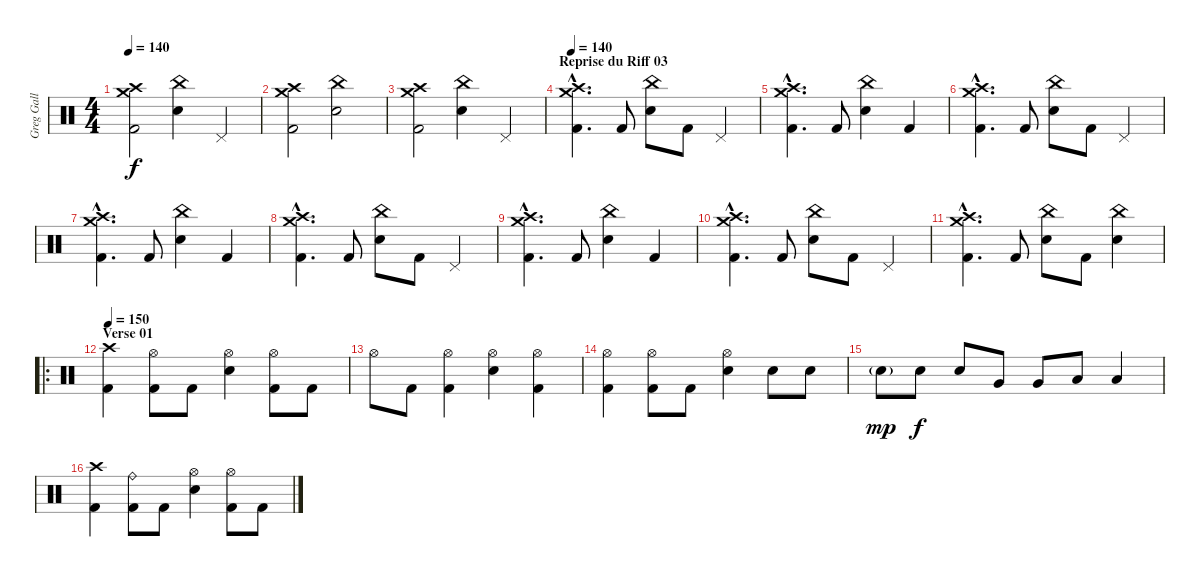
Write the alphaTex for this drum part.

\track ("Greg Gall" "Greg Gall") {instrument percussion}
\staff {score}
\articulation defaults
\ts (4 4)
\tempo 140
\clef neutral
\ks c
("Crash high (hit)" "Crash medium (hit)" "Kick (hit) 2").2{dy f} ("China (hit)" "Electric Snare (hit)").4 "Pedal Hi-Hat (hit)".4 |
("Crash high (hit)" "Crash medium (hit)" "Kick (hit) 2").2 ("China (hit)" "Electric Snare (hit)").2 |
("Crash high (hit)" "Crash medium (hit)" "Kick (hit) 2").2 ("China (hit)" "Electric Snare (hit)").4 "Pedal Hi-Hat (hit)".4 |
\section ("" "Reprise du Riff 03")
\tempo 140
("Crash high (hit)"{hac} "Crash medium (hit)"{hac} "Kick (hit) 2"{hac}).4{d} "Kick (hit) 2".8 ("China (hit)" "Electric Snare (hit)").8 "Kick (hit) 2".8 "Pedal Hi-Hat (hit)".4 |
("Crash high (hit)"{hac} "Crash medium (hit)"{hac} "Kick (hit) 2"{hac}).4{d} "Kick (hit) 2".8 ("China (hit)" "Electric Snare (hit)").4 "Kick (hit) 2".4 |
("Crash high (hit)"{hac} "Crash medium (hit)"{hac} "Kick (hit) 2"{hac}).4{d} "Kick (hit) 2".8 ("China (hit)" "Electric Snare (hit)").8 "Kick (hit) 2".8 "Pedal Hi-Hat (hit)".4 |
("Crash high (hit)"{hac} "Crash medium (hit)"{hac} "Kick (hit) 2"{hac}).4{d} "Kick (hit) 2".8 ("China (hit)" "Electric Snare (hit)").4 "Kick (hit) 2".4 |
("Crash high (hit)"{hac} "Crash medium (hit)"{hac} "Kick (hit) 2"{hac}).4{d} "Kick (hit) 2".8 ("China (hit)" "Electric Snare (hit)").8 "Kick (hit) 2".8 "Pedal Hi-Hat (hit)".4 |
("Crash high (hit)"{hac} "Crash medium (hit)"{hac} "Kick (hit) 2"{hac}).4{d} "Kick (hit) 2".8 ("China (hit)" "Electric Snare (hit)").4 "Kick (hit) 2".4 |
("Crash high (hit)"{hac} "Crash medium (hit)"{hac} "Kick (hit) 2"{hac}).4{d} "Kick (hit) 2".8 ("China (hit)" "Electric Snare (hit)").8 "Kick (hit) 2".8 "Pedal Hi-Hat (hit)".4 |
("Crash high (hit)"{hac} "Crash medium (hit)"{hac} "Kick (hit) 2"{hac}).4{d} "Kick (hit) 2".8 ("China (hit)" "Electric Snare (hit)").8 "Kick (hit) 2".8 ("China (hit)" "Electric Snare (hit)").4 |
\ro
\section ("" "Verse 01")
\tempo 150
("Crash high (hit)" "Kick (hit) 2").4 ("Hi-Hat (open)" "Kick (hit) 2").8 "Kick (hit) 2".8 ("Hi-Hat (open)" "Electric Snare (hit)").4 ("Hi-Hat (open)" "Kick (hit) 2").8 "Kick (hit) 2".8 |
"Hi-Hat (open)".8 "Kick (hit) 2".8 ("Hi-Hat (open)" "Kick (hit) 2").4 ("Hi-Hat (open)" "Electric Snare (hit)").4 ("Hi-Hat (open)" "Kick (hit) 2").4 |
("Hi-Hat (open)" "Kick (hit) 2").4 ("Hi-Hat (open)" "Kick (hit) 2").8 "Kick (hit) 2".8 ("Hi-Hat (open)" "Electric Snare (hit)").4 "Electric Snare (hit)".8 "Electric Snare (hit)".8 |
"Electric Snare (hit)"{g}.8{dy mp} "Electric Snare (hit)".8{dy f} "Electric Snare (hit)".8 "Very Low Tom (hit)".8 "Very Low Tom (hit)".8 "Low Floor Tom (hit)".8 "Low Floor Tom (hit)".4 |
("Crash high (hit)" "Kick (hit) 2").4 ("Ride (bell)" "Kick (hit) 2").8 "Kick (hit) 2".8 ("Hi-Hat (open)" "Electric Snare (hit)").4 ("Hi-Hat (open)" "Kick (hit) 2").8 "Kick (hit) 2".8
